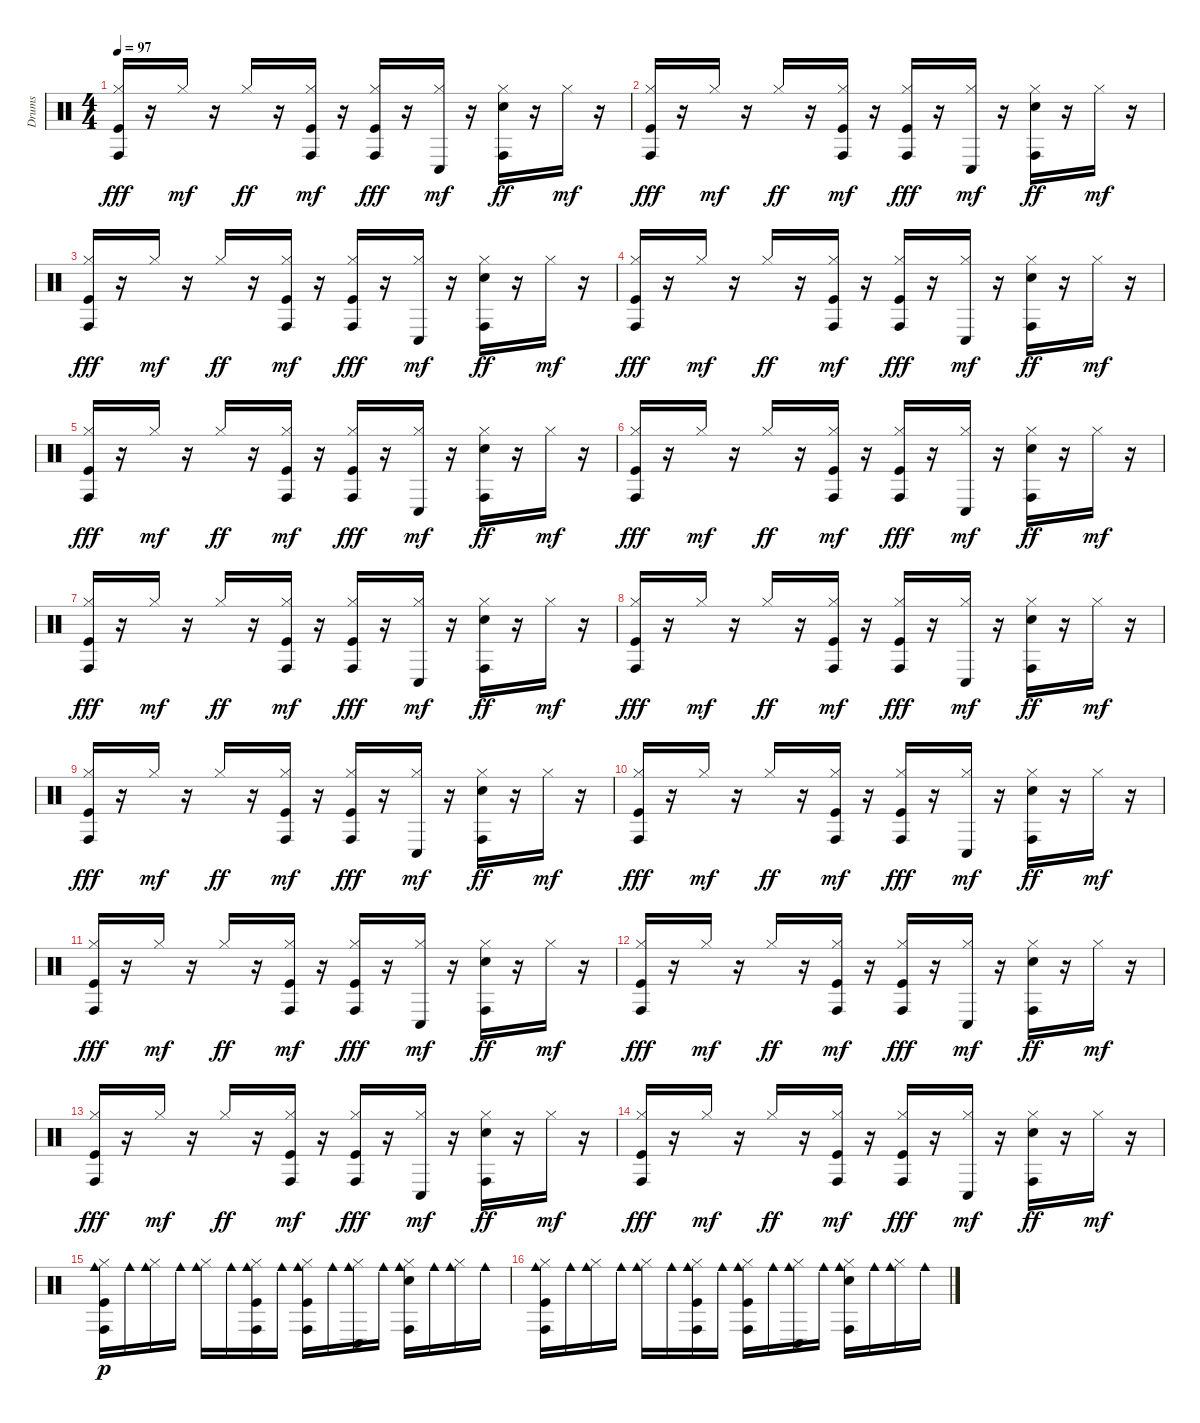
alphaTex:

\track ("Drums" "Drums") {instrument percussion}
\staff {score}
\articulation defaults
\ts (4 4)
\tempo 97
\clef neutral
\ks c
("Kick (hit)" "Hi-Hat (closed)" "Conga high (hit)").16{dy fff} r.16 "Hi-Hat (closed)".16{dy mf} r.16 "Hi-Hat (closed)".16{dy ff} r.16 ("Kick (hit)" "Hi-Hat (closed)" "Conga high (hit)").16{dy mf} r.16 ("Kick (hit)" "Hi-Hat (closed)" "Conga high (hit)").16{dy fff} r.16 ("Conga low (hit)" "Hi-Hat (closed)").16{dy mf} r.16 ("Conga high (hit)" "Snare (hit) 2" "Hi-Hat (closed)").16{dy ff} r.16 "Hi-Hat (closed)".16{dy mf} r.16 |
("Kick (hit)" "Hi-Hat (closed)" "Conga high (hit)").16{dy fff} r.16 "Hi-Hat (closed)".16{dy mf} r.16 "Hi-Hat (closed)".16{dy ff} r.16 ("Kick (hit)" "Hi-Hat (closed)" "Conga high (hit)").16{dy mf} r.16 ("Kick (hit)" "Hi-Hat (closed)" "Conga high (hit)").16{dy fff} r.16 ("Conga low (hit)" "Hi-Hat (closed)").16{dy mf} r.16 ("Conga high (hit)" "Snare (hit) 2" "Hi-Hat (closed)").16{dy ff} r.16 "Hi-Hat (closed)".16{dy mf} r.16 |
("Kick (hit)" "Hi-Hat (closed)" "Conga high (hit)").16{dy fff} r.16 "Hi-Hat (closed)".16{dy mf} r.16 "Hi-Hat (closed)".16{dy ff} r.16 ("Kick (hit)" "Hi-Hat (closed)" "Conga high (hit)").16{dy mf} r.16 ("Kick (hit)" "Hi-Hat (closed)" "Conga high (hit)").16{dy fff} r.16 ("Conga low (hit)" "Hi-Hat (closed)").16{dy mf} r.16 ("Conga high (hit)" "Snare (hit) 2" "Hi-Hat (closed)").16{dy ff} r.16 "Hi-Hat (closed)".16{dy mf} r.16 |
("Kick (hit)" "Hi-Hat (closed)" "Conga high (hit)").16{dy fff} r.16 "Hi-Hat (closed)".16{dy mf} r.16 "Hi-Hat (closed)".16{dy ff} r.16 ("Kick (hit)" "Hi-Hat (closed)" "Conga high (hit)").16{dy mf} r.16 ("Kick (hit)" "Hi-Hat (closed)" "Conga high (hit)").16{dy fff} r.16 ("Conga low (hit)" "Hi-Hat (closed)").16{dy mf} r.16 ("Conga high (hit)" "Snare (hit) 2" "Hi-Hat (closed)").16{dy ff} r.16 "Hi-Hat (closed)".16{dy mf} r.16 |
("Kick (hit)" "Hi-Hat (closed)" "Conga high (hit)").16{dy fff} r.16 "Hi-Hat (closed)".16{dy mf} r.16 "Hi-Hat (closed)".16{dy ff} r.16 ("Kick (hit)" "Hi-Hat (closed)" "Conga high (hit)").16{dy mf} r.16 ("Kick (hit)" "Hi-Hat (closed)" "Conga high (hit)").16{dy fff} r.16 ("Conga low (hit)" "Hi-Hat (closed)").16{dy mf} r.16 ("Conga high (hit)" "Snare (hit) 2" "Hi-Hat (closed)").16{dy ff} r.16 "Hi-Hat (closed)".16{dy mf} r.16 |
("Kick (hit)" "Hi-Hat (closed)" "Conga high (hit)").16{dy fff} r.16 "Hi-Hat (closed)".16{dy mf} r.16 "Hi-Hat (closed)".16{dy ff} r.16 ("Kick (hit)" "Hi-Hat (closed)" "Conga high (hit)").16{dy mf} r.16 ("Kick (hit)" "Hi-Hat (closed)" "Conga high (hit)").16{dy fff} r.16 ("Conga low (hit)" "Hi-Hat (closed)").16{dy mf} r.16 ("Conga high (hit)" "Snare (hit) 2" "Hi-Hat (closed)").16{dy ff} r.16 "Hi-Hat (closed)".16{dy mf} r.16 |
("Kick (hit)" "Hi-Hat (closed)" "Conga high (hit)").16{dy fff} r.16 "Hi-Hat (closed)".16{dy mf} r.16 "Hi-Hat (closed)".16{dy ff} r.16 ("Kick (hit)" "Hi-Hat (closed)" "Conga high (hit)").16{dy mf} r.16 ("Kick (hit)" "Hi-Hat (closed)" "Conga high (hit)").16{dy fff} r.16 ("Conga low (hit)" "Hi-Hat (closed)").16{dy mf} r.16 ("Conga high (hit)" "Snare (hit) 2" "Hi-Hat (closed)").16{dy ff} r.16 "Hi-Hat (closed)".16{dy mf} r.16 |
("Kick (hit)" "Hi-Hat (closed)" "Conga high (hit)").16{dy fff} r.16 "Hi-Hat (closed)".16{dy mf} r.16 "Hi-Hat (closed)".16{dy ff} r.16 ("Kick (hit)" "Hi-Hat (closed)" "Conga high (hit)").16{dy mf} r.16 ("Kick (hit)" "Hi-Hat (closed)" "Conga high (hit)").16{dy fff} r.16 ("Conga low (hit)" "Hi-Hat (closed)").16{dy mf} r.16 ("Conga high (hit)" "Snare (hit) 2" "Hi-Hat (closed)").16{dy ff} r.16 "Hi-Hat (closed)".16{dy mf} r.16 |
("Kick (hit)" "Hi-Hat (closed)" "Conga high (hit)").16{dy fff} r.16 "Hi-Hat (closed)".16{dy mf} r.16 "Hi-Hat (closed)".16{dy ff} r.16 ("Kick (hit)" "Hi-Hat (closed)" "Conga high (hit)").16{dy mf} r.16 ("Kick (hit)" "Hi-Hat (closed)" "Conga high (hit)").16{dy fff} r.16 ("Conga low (hit)" "Hi-Hat (closed)").16{dy mf} r.16 ("Conga high (hit)" "Snare (hit) 2" "Hi-Hat (closed)").16{dy ff} r.16 "Hi-Hat (closed)".16{dy mf} r.16 |
("Kick (hit)" "Hi-Hat (closed)" "Conga high (hit)").16{dy fff} r.16 "Hi-Hat (closed)".16{dy mf} r.16 "Hi-Hat (closed)".16{dy ff} r.16 ("Kick (hit)" "Hi-Hat (closed)" "Conga high (hit)").16{dy mf} r.16 ("Kick (hit)" "Hi-Hat (closed)" "Conga high (hit)").16{dy fff} r.16 ("Conga low (hit)" "Hi-Hat (closed)").16{dy mf} r.16 ("Conga high (hit)" "Snare (hit) 2" "Hi-Hat (closed)").16{dy ff} r.16 "Hi-Hat (closed)".16{dy mf} r.16 |
("Kick (hit)" "Hi-Hat (closed)" "Conga high (hit)").16{dy fff} r.16 "Hi-Hat (closed)".16{dy mf} r.16 "Hi-Hat (closed)".16{dy ff} r.16 ("Kick (hit)" "Hi-Hat (closed)" "Conga high (hit)").16{dy mf} r.16 ("Kick (hit)" "Hi-Hat (closed)" "Conga high (hit)").16{dy fff} r.16 ("Conga low (hit)" "Hi-Hat (closed)").16{dy mf} r.16 ("Conga high (hit)" "Snare (hit) 2" "Hi-Hat (closed)").16{dy ff} r.16 "Hi-Hat (closed)".16{dy mf} r.16 |
("Kick (hit)" "Hi-Hat (closed)" "Conga high (hit)").16{dy fff} r.16 "Hi-Hat (closed)".16{dy mf} r.16 "Hi-Hat (closed)".16{dy ff} r.16 ("Kick (hit)" "Hi-Hat (closed)" "Conga high (hit)").16{dy mf} r.16 ("Kick (hit)" "Hi-Hat (closed)" "Conga high (hit)").16{dy fff} r.16 ("Conga low (hit)" "Hi-Hat (closed)").16{dy mf} r.16 ("Conga high (hit)" "Snare (hit) 2" "Hi-Hat (closed)").16{dy ff} r.16 "Hi-Hat (closed)".16{dy mf} r.16 |
("Kick (hit)" "Hi-Hat (closed)" "Conga high (hit)").16{dy fff} r.16 "Hi-Hat (closed)".16{dy mf} r.16 "Hi-Hat (closed)".16{dy ff} r.16 ("Kick (hit)" "Hi-Hat (closed)" "Conga high (hit)").16{dy mf} r.16 ("Kick (hit)" "Hi-Hat (closed)" "Conga high (hit)").16{dy fff} r.16 ("Conga low (hit)" "Hi-Hat (closed)").16{dy mf} r.16 ("Conga high (hit)" "Snare (hit) 2" "Hi-Hat (closed)").16{dy ff} r.16 "Hi-Hat (closed)".16{dy mf} r.16 |
("Kick (hit)" "Hi-Hat (closed)" "Conga high (hit)").16{dy fff} r.16 "Hi-Hat (closed)".16{dy mf} r.16 "Hi-Hat (closed)".16{dy ff} r.16 ("Kick (hit)" "Hi-Hat (closed)" "Conga high (hit)").16{dy mf} r.16 ("Kick (hit)" "Hi-Hat (closed)" "Conga high (hit)").16{dy fff} r.16 ("Conga low (hit)" "Hi-Hat (closed)").16{dy mf} r.16 ("Conga high (hit)" "Snare (hit) 2" "Hi-Hat (closed)").16{dy ff} r.16 "Hi-Hat (closed)".16{dy mf} r.16 |
("Kick (hit)" "Hi-Hat (closed)" "Cowbell medium (hit)" "Conga high (hit)").16{dy p} "Cowbell medium (hit)".16 ("Hi-Hat (closed)" "Cowbell medium (hit)").16 "Cowbell medium (hit)".16 ("Hi-Hat (closed)" "Cowbell medium (hit)").16 "Cowbell medium (hit)".16 ("Kick (hit)" "Hi-Hat (closed)" "Cowbell medium (hit)" "Conga high (hit)").16 "Cowbell medium (hit)".16 ("Kick (hit)" "Hi-Hat (closed)" "Cowbell medium (hit)" "Conga high (hit)").16 "Cowbell medium (hit)".16 ("Conga low (hit)" "Hi-Hat (closed)" "Cowbell medium (hit)").16 "Cowbell medium (hit)".16 ("Conga high (hit)" "Snare (hit) 2" "Hi-Hat (closed)" "Cowbell medium (hit)").16 "Cowbell medium (hit)".16 ("Hi-Hat (closed)" "Cowbell medium (hit)").16 "Cowbell medium (hit)".16 |
("Kick (hit)" "Hi-Hat (closed)" "Cowbell medium (hit)" "Conga high (hit)").16 "Cowbell medium (hit)".16 ("Hi-Hat (closed)" "Cowbell medium (hit)").16 "Cowbell medium (hit)".16 ("Hi-Hat (closed)" "Cowbell medium (hit)").16 "Cowbell medium (hit)".16 ("Kick (hit)" "Hi-Hat (closed)" "Cowbell medium (hit)" "Conga high (hit)").16 "Cowbell medium (hit)".16 ("Kick (hit)" "Hi-Hat (closed)" "Cowbell medium (hit)" "Conga high (hit)").16 "Cowbell medium (hit)".16 ("Conga low (hit)" "Hi-Hat (closed)" "Cowbell medium (hit)").16 "Cowbell medium (hit)".16 ("Conga high (hit)" "Snare (hit) 2" "Hi-Hat (closed)" "Cowbell medium (hit)").16 "Cowbell medium (hit)".16 ("Hi-Hat (closed)" "Cowbell medium (hit)").16 "Cowbell medium (hit)".16
